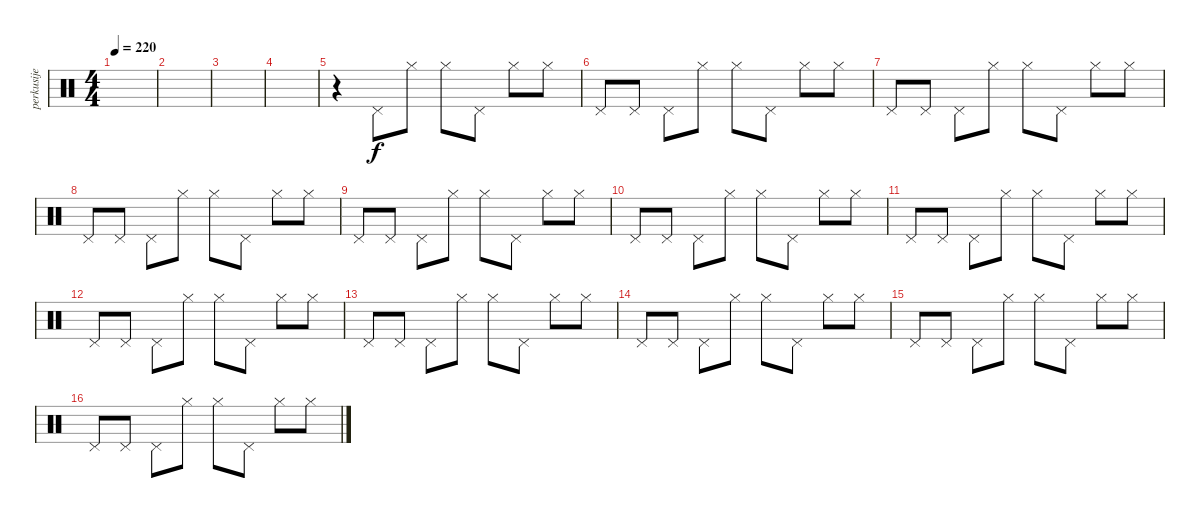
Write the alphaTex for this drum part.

\track ("perkusije" "perkusije") {instrument percussion}
\staff {score}
\articulation defaults
\ts (4 4)
\tempo 220
\clef neutral
\ks c
|
|
|
|
r.4 "Pedal Hi-Hat (hit)".8 "Hi-Hat (closed)".8 "Hi-Hat (closed)".8 "Pedal Hi-Hat (hit)".8 "Hi-Hat (closed)".8 "Hi-Hat (closed)".8 |
"Pedal Hi-Hat (hit)".8 "Pedal Hi-Hat (hit)".8 "Pedal Hi-Hat (hit)".8 "Hi-Hat (closed)".8 "Hi-Hat (closed)".8 "Pedal Hi-Hat (hit)".8 "Hi-Hat (closed)".8 "Hi-Hat (closed)".8 |
"Pedal Hi-Hat (hit)".8 "Pedal Hi-Hat (hit)".8 "Pedal Hi-Hat (hit)".8 "Hi-Hat (closed)".8 "Hi-Hat (closed)".8 "Pedal Hi-Hat (hit)".8 "Hi-Hat (closed)".8 "Hi-Hat (closed)".8 |
"Pedal Hi-Hat (hit)".8 "Pedal Hi-Hat (hit)".8 "Pedal Hi-Hat (hit)".8 "Hi-Hat (closed)".8 "Hi-Hat (closed)".8 "Pedal Hi-Hat (hit)".8 "Hi-Hat (closed)".8 "Hi-Hat (closed)".8 |
"Pedal Hi-Hat (hit)".8 "Pedal Hi-Hat (hit)".8 "Pedal Hi-Hat (hit)".8 "Hi-Hat (closed)".8 "Hi-Hat (closed)".8 "Pedal Hi-Hat (hit)".8 "Hi-Hat (closed)".8 "Hi-Hat (closed)".8 |
"Pedal Hi-Hat (hit)".8 "Pedal Hi-Hat (hit)".8 "Pedal Hi-Hat (hit)".8 "Hi-Hat (closed)".8 "Hi-Hat (closed)".8 "Pedal Hi-Hat (hit)".8 "Hi-Hat (closed)".8 "Hi-Hat (closed)".8 |
"Pedal Hi-Hat (hit)".8 "Pedal Hi-Hat (hit)".8 "Pedal Hi-Hat (hit)".8 "Hi-Hat (closed)".8 "Hi-Hat (closed)".8 "Pedal Hi-Hat (hit)".8 "Hi-Hat (closed)".8 "Hi-Hat (closed)".8 |
"Pedal Hi-Hat (hit)".8 "Pedal Hi-Hat (hit)".8 "Pedal Hi-Hat (hit)".8 "Hi-Hat (closed)".8 "Hi-Hat (closed)".8 "Pedal Hi-Hat (hit)".8 "Hi-Hat (closed)".8 "Hi-Hat (closed)".8 |
"Pedal Hi-Hat (hit)".8 "Pedal Hi-Hat (hit)".8 "Pedal Hi-Hat (hit)".8 "Hi-Hat (closed)".8 "Hi-Hat (closed)".8 "Pedal Hi-Hat (hit)".8 "Hi-Hat (closed)".8 "Hi-Hat (closed)".8 |
"Pedal Hi-Hat (hit)".8 "Pedal Hi-Hat (hit)".8 "Pedal Hi-Hat (hit)".8 "Hi-Hat (closed)".8 "Hi-Hat (closed)".8 "Pedal Hi-Hat (hit)".8 "Hi-Hat (closed)".8 "Hi-Hat (closed)".8 |
"Pedal Hi-Hat (hit)".8 "Pedal Hi-Hat (hit)".8 "Pedal Hi-Hat (hit)".8 "Hi-Hat (closed)".8 "Hi-Hat (closed)".8 "Pedal Hi-Hat (hit)".8 "Hi-Hat (closed)".8 "Hi-Hat (closed)".8 |
"Pedal Hi-Hat (hit)".8 "Pedal Hi-Hat (hit)".8 "Pedal Hi-Hat (hit)".8 "Hi-Hat (closed)".8 "Hi-Hat (closed)".8 "Pedal Hi-Hat (hit)".8 "Hi-Hat (closed)".8 "Hi-Hat (closed)".8
